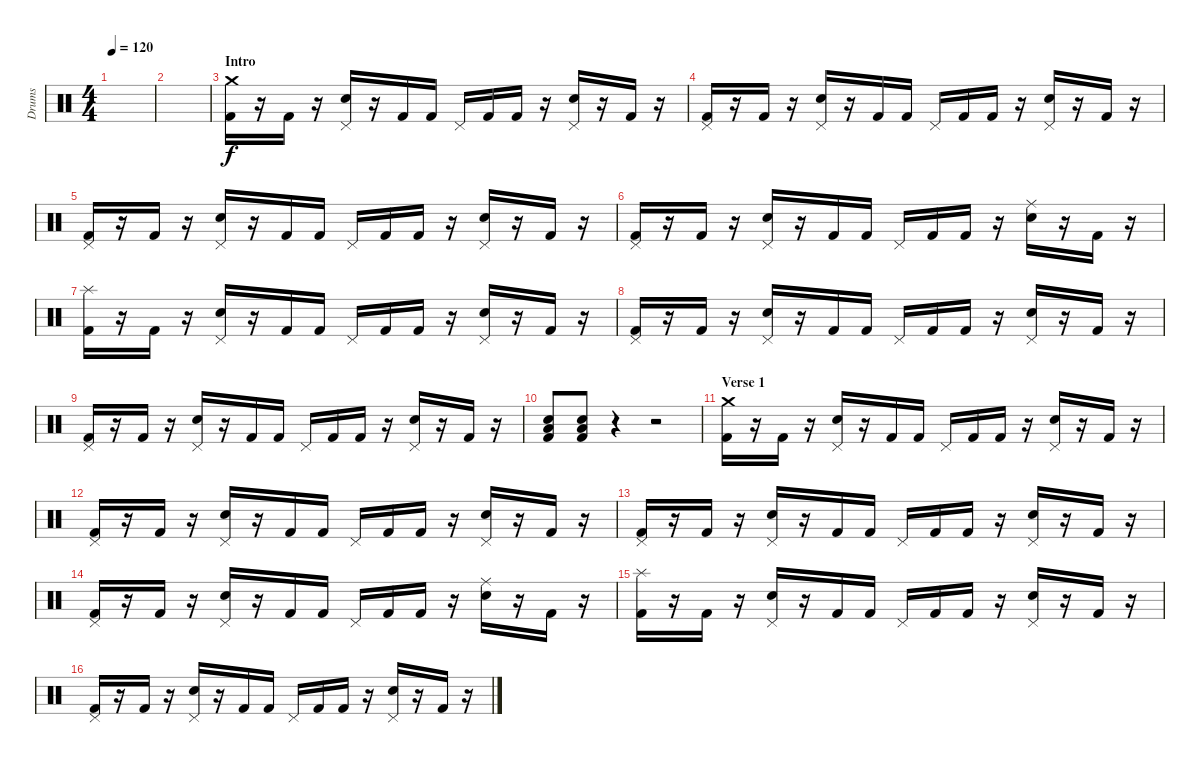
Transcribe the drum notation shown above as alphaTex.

\track ("Drums" "Drums") {instrument percussion}
\staff {score}
\articulation defaults
\ts (4 4)
\tempo 120
\clef neutral
\ks c
|
|
\section ("" "Intro")
("Crash medium (hit)" "Kick (hit) 2").16 r.16 "Kick (hit) 2".16 r.16 ("Pedal Hi-Hat (hit)" "Snare (hit) 2").16 r.16 "Kick (hit) 2".16 "Kick (hit) 2".16 "Pedal Hi-Hat (hit)".16 "Kick (hit) 2".16 "Kick (hit) 2".16 r.16 ("Pedal Hi-Hat (hit)" "Snare (hit) 2").16 r.16 "Kick (hit) 2".16 r.16 |
("Pedal Hi-Hat (hit)" "Kick (hit) 2").16 r.16 "Kick (hit) 2".16 r.16 ("Pedal Hi-Hat (hit)" "Snare (hit) 2").16 r.16 "Kick (hit) 2".16 "Kick (hit) 2".16 "Pedal Hi-Hat (hit)".16 "Kick (hit) 2".16 "Kick (hit) 2".16 r.16 ("Pedal Hi-Hat (hit)" "Snare (hit) 2").16 r.16 "Kick (hit) 2".16 r.16 |
("Pedal Hi-Hat (hit)" "Kick (hit) 2").16 r.16 "Kick (hit) 2".16 r.16 ("Pedal Hi-Hat (hit)" "Snare (hit) 2").16 r.16 "Kick (hit) 2".16 "Kick (hit) 2".16 "Pedal Hi-Hat (hit)".16 "Kick (hit) 2".16 "Kick (hit) 2".16 r.16 ("Pedal Hi-Hat (hit)" "Snare (hit) 2").16 r.16 "Kick (hit) 2".16 r.16 |
("Pedal Hi-Hat (hit)" "Kick (hit) 2").16 r.16 "Kick (hit) 2".16 r.16 ("Pedal Hi-Hat (hit)" "Snare (hit) 2").16 r.16 "Kick (hit) 2".16 "Kick (hit) 2".16 "Pedal Hi-Hat (hit)".16 "Kick (hit) 2".16 "Kick (hit) 2".16 r.16 ("Ride (middle)" "Snare (hit) 2").16 r.16 "Kick (hit) 2".16 r.16 |
("Splash (hit)" "Kick (hit) 2").16 r.16 "Kick (hit) 2".16 r.16 ("Pedal Hi-Hat (hit)" "Snare (hit) 2").16 r.16 "Kick (hit) 2".16 "Kick (hit) 2".16 "Pedal Hi-Hat (hit)".16 "Kick (hit) 2".16 "Kick (hit) 2".16 r.16 ("Pedal Hi-Hat (hit)" "Snare (hit) 2").16 r.16 "Kick (hit) 2".16 r.16 |
("Pedal Hi-Hat (hit)" "Kick (hit) 2").16 r.16 "Kick (hit) 2".16 r.16 ("Pedal Hi-Hat (hit)" "Snare (hit) 2").16 r.16 "Kick (hit) 2".16 "Kick (hit) 2".16 "Pedal Hi-Hat (hit)".16 "Kick (hit) 2".16 "Kick (hit) 2".16 r.16 ("Pedal Hi-Hat (hit)" "Snare (hit) 2").16 r.16 "Kick (hit) 2".16 r.16 |
("Pedal Hi-Hat (hit)" "Kick (hit) 2").16 r.16 "Kick (hit) 2".16 r.16 ("Pedal Hi-Hat (hit)" "Snare (hit) 2").16 r.16 "Kick (hit) 2".16 "Kick (hit) 2".16 "Pedal Hi-Hat (hit)".16 "Kick (hit) 2".16 "Kick (hit) 2".16 r.16 ("Pedal Hi-Hat (hit)" "Snare (hit) 2").16 r.16 "Kick (hit) 2".16 r.16 |
("Snare (hit) 2" "Low Floor Tom (hit)" "Kick (hit) 2").8 ("Snare (hit) 2" "Low Floor Tom (hit)" "Kick (hit) 2").8 r.4 r.2 |
\section ("" "Verse 1")
("Crash medium (hit)" "Kick (hit) 2").16 r.16 "Kick (hit) 2".16 r.16 ("Pedal Hi-Hat (hit)" "Snare (hit) 2").16 r.16 "Kick (hit) 2".16 "Kick (hit) 2".16 "Pedal Hi-Hat (hit)".16 "Kick (hit) 2".16 "Kick (hit) 2".16 r.16 ("Pedal Hi-Hat (hit)" "Snare (hit) 2").16 r.16 "Kick (hit) 2".16 r.16 |
("Pedal Hi-Hat (hit)" "Kick (hit) 2").16 r.16 "Kick (hit) 2".16 r.16 ("Pedal Hi-Hat (hit)" "Snare (hit) 2").16 r.16 "Kick (hit) 2".16 "Kick (hit) 2".16 "Pedal Hi-Hat (hit)".16 "Kick (hit) 2".16 "Kick (hit) 2".16 r.16 ("Pedal Hi-Hat (hit)" "Snare (hit) 2").16 r.16 "Kick (hit) 2".16 r.16 |
("Pedal Hi-Hat (hit)" "Kick (hit) 2").16 r.16 "Kick (hit) 2".16 r.16 ("Pedal Hi-Hat (hit)" "Snare (hit) 2").16 r.16 "Kick (hit) 2".16 "Kick (hit) 2".16 "Pedal Hi-Hat (hit)".16 "Kick (hit) 2".16 "Kick (hit) 2".16 r.16 ("Pedal Hi-Hat (hit)" "Snare (hit) 2").16 r.16 "Kick (hit) 2".16 r.16 |
("Pedal Hi-Hat (hit)" "Kick (hit) 2").16 r.16 "Kick (hit) 2".16 r.16 ("Pedal Hi-Hat (hit)" "Snare (hit) 2").16 r.16 "Kick (hit) 2".16 "Kick (hit) 2".16 "Pedal Hi-Hat (hit)".16 "Kick (hit) 2".16 "Kick (hit) 2".16 r.16 ("Ride (middle)" "Snare (hit) 2").16 r.16 "Kick (hit) 2".16 r.16 |
("Splash (hit)" "Kick (hit) 2").16 r.16 "Kick (hit) 2".16 r.16 ("Pedal Hi-Hat (hit)" "Snare (hit) 2").16 r.16 "Kick (hit) 2".16 "Kick (hit) 2".16 "Pedal Hi-Hat (hit)".16 "Kick (hit) 2".16 "Kick (hit) 2".16 r.16 ("Pedal Hi-Hat (hit)" "Snare (hit) 2").16 r.16 "Kick (hit) 2".16 r.16 |
("Pedal Hi-Hat (hit)" "Kick (hit) 2").16 r.16 "Kick (hit) 2".16 r.16 ("Pedal Hi-Hat (hit)" "Snare (hit) 2").16 r.16 "Kick (hit) 2".16 "Kick (hit) 2".16 "Pedal Hi-Hat (hit)".16 "Kick (hit) 2".16 "Kick (hit) 2".16 r.16 ("Pedal Hi-Hat (hit)" "Snare (hit) 2").16 r.16 "Kick (hit) 2".16 r.16
